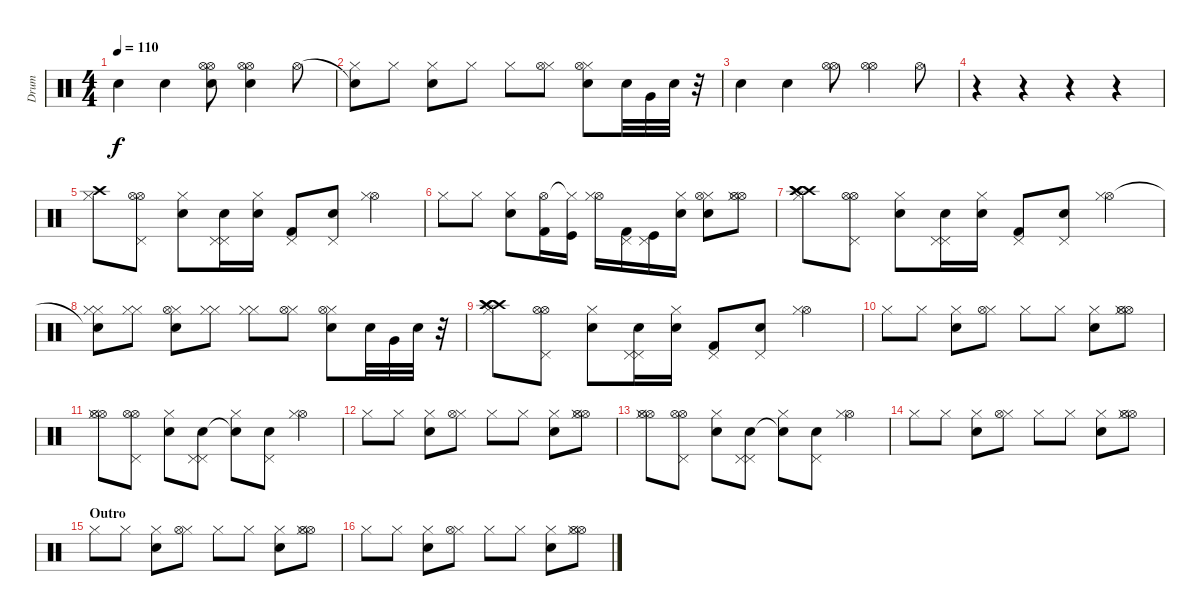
\track ("Drum" "Drum") {instrument percussion}
\staff {score}
\articulation defaults
\ts (4 4)
\tempo 110
\clef neutral
\ks c "Electric Snare (hit)".4{dy f} "Electric Snare (hit)".4
("Hi-Hat (open)" "Hi-Hat (open)" "Electric Snare (hit)").8 ("Hi-Hat (open)" "Hi-Hat (open)" "Electric Snare (hit)").4 "Hi-Hat (open)".8 |
("Snare (hit)"{t} "Hi-Hat (closed)").8 "Hi-Hat (closed)".8 ("Electric Snare (hit)" "Hi-Hat (closed)").8 "Hi-Hat (closed)".8 "Hi-Hat (closed)".8 ("Hi-Hat (closed)" "Hi-Hat (open)").8 ("Electric Snare (hit)" "Hi-Hat (closed)" "Hi-Hat (open)").8 "Electric Snare (hit)".32 "Very Low Tom (hit)".32 "Electric Snare (hit)".32 r.32 |
"Electric Snare (hit)".4 "Electric Snare (hit)".4 ("Hi-Hat (open)" "Hi-Hat (open)").8 ("Hi-Hat (open)" "Hi-Hat (open)").4 "Hi-Hat (open)".8 |
r.4 r.4 r.4 r.4 |
("Crash high (hit)" "Hi-Hat (closed)").8 ("Hi-Hat (open)" "Hi-Hat (open)" "Pedal Hi-Hat (hit)").8 ("Electric Snare (hit)" "Hi-Hat (closed)").8 ("Electric Snare (hit)" "Pedal Hi-Hat (hit)" "Pedal Hi-Hat (hit)").16 ("Hi-Hat (closed)" "Electric Snare (hit)").16 ("Pedal Hi-Hat (hit)" "Kick (hit) 2").8 ("Electric Snare (hit)" "Pedal Hi-Hat (hit)").8 ("Hi-Hat (open)" "Hi-Hat (closed)").4 |
"Hi-Hat (closed)".8 "Hi-Hat (closed)".8 ("Electric Snare (hit)" "Hi-Hat (closed)").8 ("Kick (hit) 2" "Hi-Hat (open)").16 ("Kick (hit)" "Hi-Hat (closed)"{t}).16 ("Hi-Hat (open)" "Hi-Hat (closed)").16 ("Kick (hit) 2" "Pedal Hi-Hat (hit)").16 ("Kick (hit)" "Pedal Hi-Hat (hit)").16 ("Electric Snare (hit)" "Hi-Hat (closed)").16 ("Electric Snare (hit)" "Hi-Hat (closed)" "Hi-Hat (open)").8 ("Hi-Hat (open)" "Hi-Hat (closed)" "Hi-Hat (open)").8 |
("Crash high (hit)" "Crash high (hit)" "Crash high (hit)" "Hi-Hat (closed)").8 ("Hi-Hat (open)" "Hi-Hat (open)" "Pedal Hi-Hat (hit)").8 ("Electric Snare (hit)" "Hi-Hat (closed)").8 ("Electric Snare (hit)" "Pedal Hi-Hat (hit)" "Pedal Hi-Hat (hit)").16 ("Hi-Hat (closed)" "Electric Snare (hit)").16 ("Pedal Hi-Hat (hit)" "Kick (hit) 2").8 ("Electric Snare (hit)" "Pedal Hi-Hat (hit)").8 ("Hi-Hat (open)" "Hi-Hat (closed)").4 |
("Snare (hit)"{t} "Hi-Hat (closed)" "Hi-Hat (closed)").8 ("Hi-Hat (closed)" "Hi-Hat (closed)").8 ("Electric Snare (hit)" "Hi-Hat (closed)" "Hi-Hat (open)").8 ("Hi-Hat (closed)" "Hi-Hat (closed)").8 ("Hi-Hat (closed)" "Hi-Hat (closed)").8 ("Hi-Hat (closed)" "Hi-Hat (open)").8 ("Electric Snare (hit)" "Hi-Hat (closed)" "Hi-Hat (open)").8 "Electric Snare (hit)".32 "Very Low Tom (hit)".32 "Electric Snare (hit)".32 r.32 |
("Crash high (hit)" "Crash high (hit)" "Crash high (hit)" "Hi-Hat (closed)").8 ("Hi-Hat (open)" "Hi-Hat (open)" "Pedal Hi-Hat (hit)").8 ("Electric Snare (hit)" "Hi-Hat (closed)").8 ("Electric Snare (hit)" "Pedal Hi-Hat (hit)" "Pedal Hi-Hat (hit)").16 ("Hi-Hat (closed)" "Electric Snare (hit)").16 ("Pedal Hi-Hat (hit)" "Kick (hit) 2").8 ("Electric Snare (hit)" "Pedal Hi-Hat (hit)").8 ("Hi-Hat (open)" "Hi-Hat (closed)").4 |
"Hi-Hat (closed)".8 "Hi-Hat (closed)".8 ("Electric Snare (hit)" "Hi-Hat (closed)").8 ("Hi-Hat (closed)" "Hi-Hat (open)").8 "Hi-Hat (closed)".8 "Hi-Hat (closed)".8 ("Electric Snare (hit)" "Hi-Hat (closed)").8 ("Hi-Hat (open)" "Hi-Hat (closed)" "Hi-Hat (open)").8 |
("Hi-Hat (open)" "Hi-Hat (open)" "Hi-Hat (closed)").8 ("Hi-Hat (open)" "Hi-Hat (open)" "Pedal Hi-Hat (hit)").8 ("Electric Snare (hit)" "Hi-Hat (closed)").8 ("Electric Snare (hit)" "Pedal Hi-Hat (hit)" "Pedal Hi-Hat (hit)").8 ("Snare (hit)"{t} "Hi-Hat (closed)").8 ("Electric Snare (hit)" "Pedal Hi-Hat (hit)").8 ("Hi-Hat (open)" "Hi-Hat (closed)").4 |
"Hi-Hat (closed)".8 "Hi-Hat (closed)".8 ("Electric Snare (hit)" "Hi-Hat (closed)").8 ("Hi-Hat (closed)" "Hi-Hat (open)").8 "Hi-Hat (closed)".8 "Hi-Hat (closed)".8 ("Electric Snare (hit)" "Hi-Hat (closed)").8 ("Hi-Hat (open)" "Hi-Hat (closed)" "Hi-Hat (open)").8 |
("Hi-Hat (open)" "Hi-Hat (open)" "Hi-Hat (closed)").8 ("Hi-Hat (open)" "Hi-Hat (open)" "Pedal Hi-Hat (hit)").8 ("Electric Snare (hit)" "Hi-Hat (closed)").8 ("Electric Snare (hit)" "Pedal Hi-Hat (hit)" "Pedal Hi-Hat (hit)").8 ("Snare (hit)"{t} "Hi-Hat (closed)").8 ("Electric Snare (hit)" "Pedal Hi-Hat (hit)").8 ("Hi-Hat (open)" "Hi-Hat (closed)").4 |
"Hi-Hat (closed)".8 "Hi-Hat (closed)".8 ("Electric Snare (hit)" "Hi-Hat (closed)").8 ("Hi-Hat (closed)" "Hi-Hat (open)").8 "Hi-Hat (closed)".8 "Hi-Hat (closed)".8 ("Electric Snare (hit)" "Hi-Hat (closed)").8 ("Hi-Hat (open)" "Hi-Hat (closed)" "Hi-Hat (open)").8 |
\section ("" "Outro")
"Hi-Hat (closed)".8 "Hi-Hat (closed)".8 ("Electric Snare (hit)" "Hi-Hat (closed)").8 ("Hi-Hat (closed)" "Hi-Hat (open)").8 "Hi-Hat (closed)".8 "Hi-Hat (closed)".8 ("Electric Snare (hit)" "Hi-Hat (closed)").8 ("Hi-Hat (open)" "Hi-Hat (closed)" "Hi-Hat (open)").8 |
"Hi-Hat (closed)".8 "Hi-Hat (closed)".8 ("Electric Snare (hit)" "Hi-Hat (closed)").8 ("Hi-Hat (closed)" "Hi-Hat (open)").8 "Hi-Hat (closed)".8 "Hi-Hat (closed)".8 ("Electric Snare (hit)" "Hi-Hat (closed)").8 ("Hi-Hat (open)" "Hi-Hat (closed)" "Hi-Hat (open)").8
